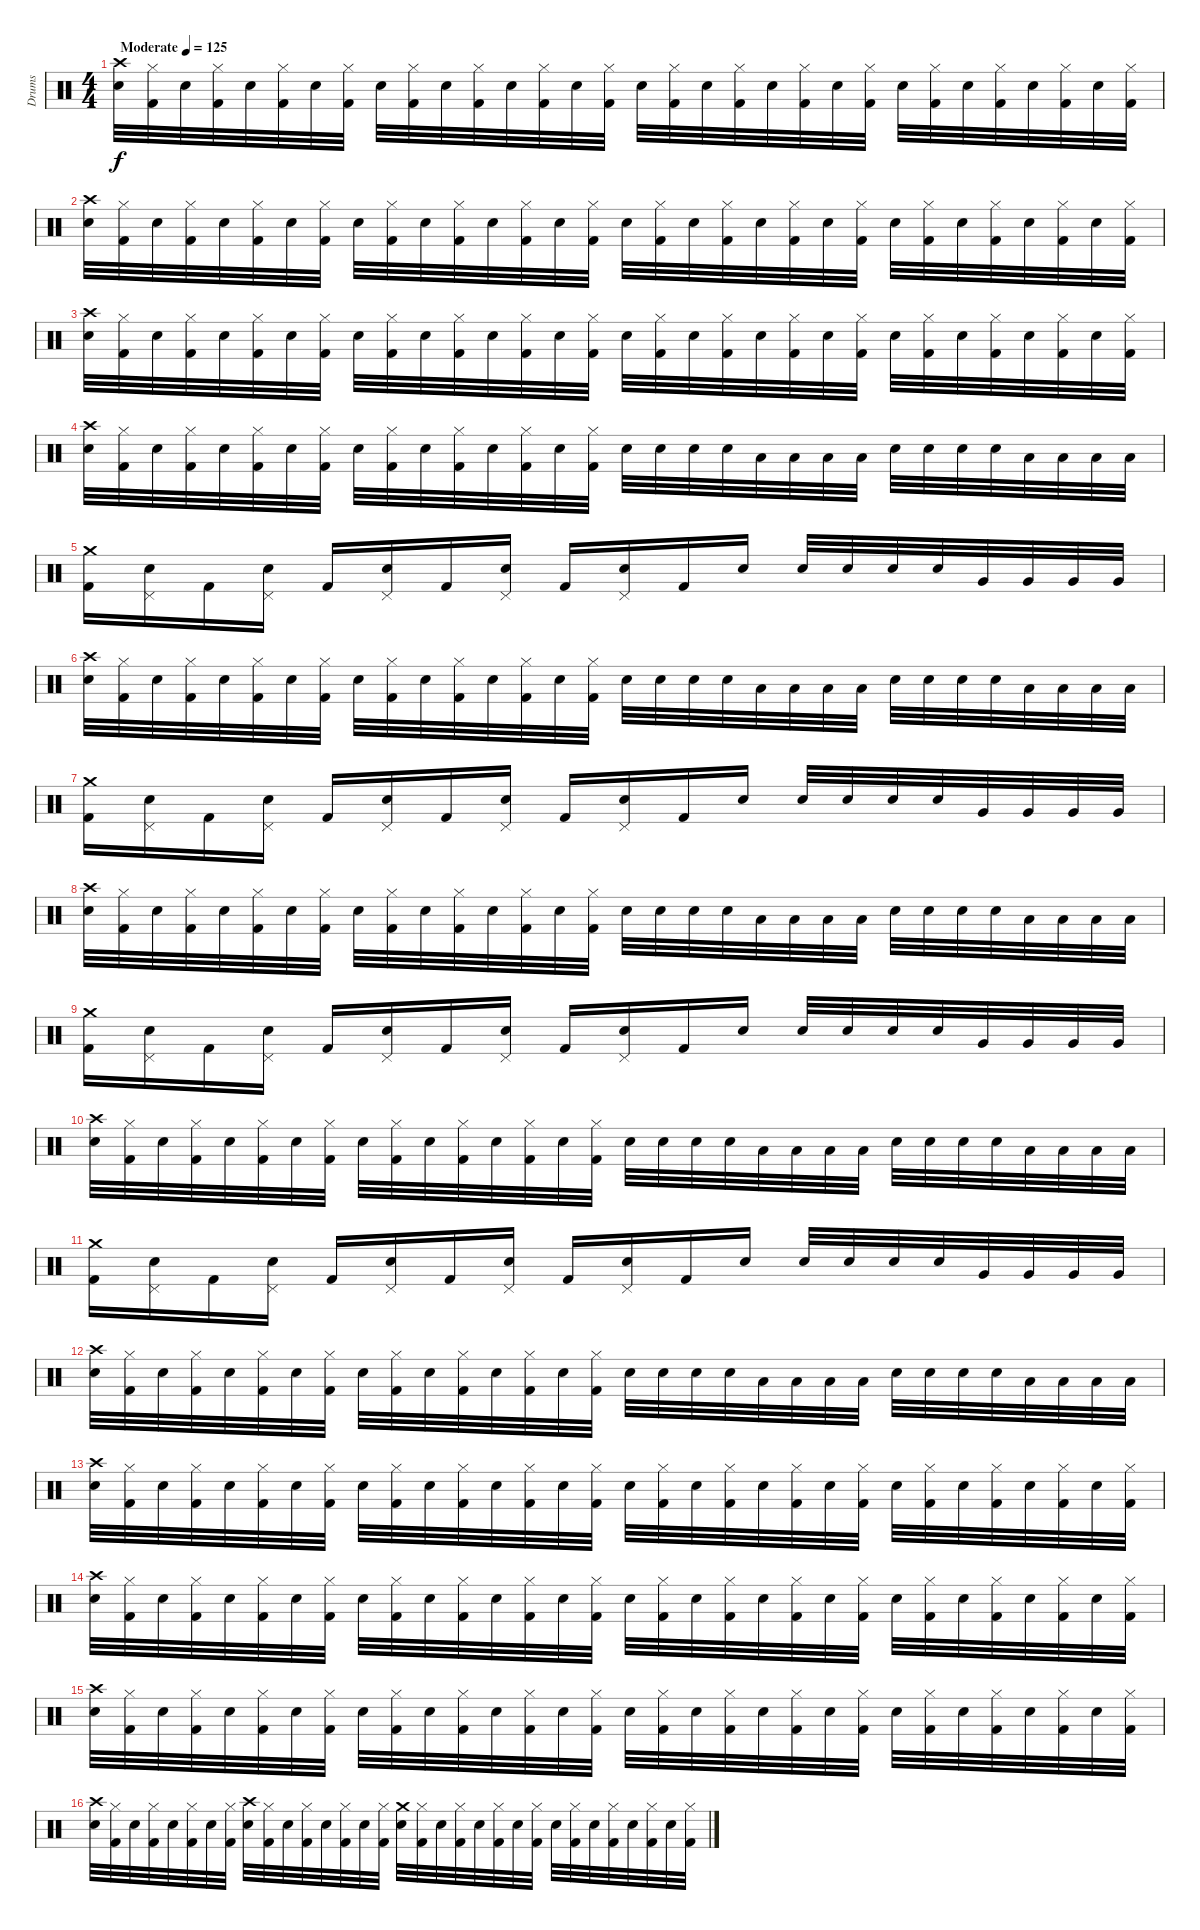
\track ("Drums" "Drums") {instrument percussion}
\staff {score}
\articulation defaults
\ts (4 4)
\tempo (125 "Moderate")
\clef neutral
\ks c
("Crash high (hit)" "Snare (hit) 2").32{dy f} ("Hi-Hat (closed)" "Kick (hit) 2").32 "Snare (hit) 2".32 ("Hi-Hat (closed)" "Kick (hit) 2").32 "Snare (hit) 2".32 ("Hi-Hat (closed)" "Kick (hit) 2").32 "Snare (hit) 2".32 ("Hi-Hat (closed)" "Kick (hit) 2").32 "Snare (hit) 2".32 ("Hi-Hat (closed)" "Kick (hit) 2").32 "Snare (hit) 2".32 ("Hi-Hat (closed)" "Kick (hit) 2").32 "Snare (hit) 2".32 ("Hi-Hat (closed)" "Kick (hit) 2").32 "Snare (hit) 2".32 ("Hi-Hat (closed)" "Kick (hit) 2").32 "Snare (hit) 2".32 ("Hi-Hat (closed)" "Kick (hit) 2").32 "Snare (hit) 2".32 ("Hi-Hat (closed)" "Kick (hit) 2").32 "Snare (hit) 2".32 ("Hi-Hat (closed)" "Kick (hit) 2").32 "Snare (hit) 2".32 ("Hi-Hat (closed)" "Kick (hit) 2").32 "Snare (hit) 2".32 ("Hi-Hat (closed)" "Kick (hit) 2").32 "Snare (hit) 2".32 ("Hi-Hat (closed)" "Kick (hit) 2").32 "Snare (hit) 2".32 ("Hi-Hat (closed)" "Kick (hit) 2").32 "Snare (hit) 2".32 ("Hi-Hat (closed)" "Kick (hit) 2").32 |
("Crash high (hit)" "Snare (hit) 2").32 ("Hi-Hat (closed)" "Kick (hit) 2").32 "Snare (hit) 2".32 ("Hi-Hat (closed)" "Kick (hit) 2").32 "Snare (hit) 2".32 ("Hi-Hat (closed)" "Kick (hit) 2").32 "Snare (hit) 2".32 ("Hi-Hat (closed)" "Kick (hit) 2").32 "Snare (hit) 2".32 ("Hi-Hat (closed)" "Kick (hit) 2").32 "Snare (hit) 2".32 ("Hi-Hat (closed)" "Kick (hit) 2").32 "Snare (hit) 2".32 ("Hi-Hat (closed)" "Kick (hit) 2").32 "Snare (hit) 2".32 ("Hi-Hat (closed)" "Kick (hit) 2").32 "Snare (hit) 2".32 ("Hi-Hat (closed)" "Kick (hit) 2").32 "Snare (hit) 2".32 ("Hi-Hat (closed)" "Kick (hit) 2").32 "Snare (hit) 2".32 ("Hi-Hat (closed)" "Kick (hit) 2").32 "Snare (hit) 2".32 ("Hi-Hat (closed)" "Kick (hit) 2").32 "Snare (hit) 2".32 ("Hi-Hat (closed)" "Kick (hit) 2").32 "Snare (hit) 2".32 ("Hi-Hat (closed)" "Kick (hit) 2").32 "Snare (hit) 2".32 ("Hi-Hat (closed)" "Kick (hit) 2").32 "Snare (hit) 2".32 ("Hi-Hat (closed)" "Kick (hit) 2").32 |
("Crash high (hit)" "Snare (hit) 2").32 ("Hi-Hat (closed)" "Kick (hit) 2").32 "Snare (hit) 2".32 ("Hi-Hat (closed)" "Kick (hit) 2").32 "Snare (hit) 2".32 ("Hi-Hat (closed)" "Kick (hit) 2").32 "Snare (hit) 2".32 ("Hi-Hat (closed)" "Kick (hit) 2").32 "Snare (hit) 2".32 ("Hi-Hat (closed)" "Kick (hit) 2").32 "Snare (hit) 2".32 ("Hi-Hat (closed)" "Kick (hit) 2").32 "Snare (hit) 2".32 ("Hi-Hat (closed)" "Kick (hit) 2").32 "Snare (hit) 2".32 ("Hi-Hat (closed)" "Kick (hit) 2").32 "Snare (hit) 2".32 ("Hi-Hat (closed)" "Kick (hit) 2").32 "Snare (hit) 2".32 ("Hi-Hat (closed)" "Kick (hit) 2").32 "Snare (hit) 2".32 ("Hi-Hat (closed)" "Kick (hit) 2").32 "Snare (hit) 2".32 ("Hi-Hat (closed)" "Kick (hit) 2").32 "Snare (hit) 2".32 ("Hi-Hat (closed)" "Kick (hit) 2").32 "Snare (hit) 2".32 ("Hi-Hat (closed)" "Kick (hit) 2").32 "Snare (hit) 2".32 ("Hi-Hat (closed)" "Kick (hit) 2").32 "Snare (hit) 2".32 ("Hi-Hat (closed)" "Kick (hit) 2").32 |
("Crash high (hit)" "Snare (hit) 2").32 ("Hi-Hat (closed)" "Kick (hit) 2").32 "Snare (hit) 2".32 ("Hi-Hat (closed)" "Kick (hit) 2").32 "Snare (hit) 2".32 ("Hi-Hat (closed)" "Kick (hit) 2").32 "Snare (hit) 2".32 ("Hi-Hat (closed)" "Kick (hit) 2").32 "Snare (hit) 2".32 ("Hi-Hat (closed)" "Kick (hit) 2").32 "Snare (hit) 2".32 ("Hi-Hat (closed)" "Kick (hit) 2").32 "Snare (hit) 2".32 ("Hi-Hat (closed)" "Kick (hit) 2").32 "Snare (hit) 2".32 ("Hi-Hat (closed)" "Kick (hit) 2").32 "Snare (hit) 2".32 "Snare (hit) 2".32 "Snare (hit) 2".32 "Snare (hit) 2".32 "Low Tom (hit)".32 "Low Tom (hit)".32 "Low Tom (hit)".32 "Low Tom (hit)".32 "Snare (hit) 2".32 "Snare (hit) 2".32 "Snare (hit) 2".32 "Snare (hit) 2".32 "Low Tom (hit)".32 "Low Tom (hit)".32 "Low Tom (hit)".32 "Low Tom (hit)".32 |
("Crash medium (hit)" "Kick (hit) 2").16 ("Pedal Hi-Hat (hit)" "Snare (hit) 2").16 "Kick (hit) 2".16 ("Pedal Hi-Hat (hit)" "Snare (hit) 2").16 "Kick (hit) 2".16 ("Pedal Hi-Hat (hit)" "Snare (hit) 2").16 "Kick (hit) 2".16 ("Pedal Hi-Hat (hit)" "Snare (hit) 2").16 "Kick (hit) 2".16 ("Pedal Hi-Hat (hit)" "Snare (hit) 2").16 "Kick (hit) 2".16 "Snare (hit) 2".16 "Snare (hit) 2".32 "Snare (hit) 2".32 "Snare (hit) 2".32 "Snare (hit) 2".32 "Very Low Tom (hit)".32 "Very Low Tom (hit)".32 "Very Low Tom (hit)".32 "Very Low Tom (hit)".32 |
("Crash high (hit)" "Snare (hit) 2").32 ("Hi-Hat (closed)" "Kick (hit) 2").32 "Snare (hit) 2".32 ("Hi-Hat (closed)" "Kick (hit) 2").32 "Snare (hit) 2".32 ("Hi-Hat (closed)" "Kick (hit) 2").32 "Snare (hit) 2".32 ("Hi-Hat (closed)" "Kick (hit) 2").32 "Snare (hit) 2".32 ("Hi-Hat (closed)" "Kick (hit) 2").32 "Snare (hit) 2".32 ("Hi-Hat (closed)" "Kick (hit) 2").32 "Snare (hit) 2".32 ("Hi-Hat (closed)" "Kick (hit) 2").32 "Snare (hit) 2".32 ("Hi-Hat (closed)" "Kick (hit) 2").32 "Snare (hit) 2".32 "Snare (hit) 2".32 "Snare (hit) 2".32 "Snare (hit) 2".32 "Low Tom (hit)".32 "Low Tom (hit)".32 "Low Tom (hit)".32 "Low Tom (hit)".32 "Snare (hit) 2".32 "Snare (hit) 2".32 "Snare (hit) 2".32 "Snare (hit) 2".32 "Low Tom (hit)".32 "Low Tom (hit)".32 "Low Tom (hit)".32 "Low Tom (hit)".32 |
("Crash medium (hit)" "Kick (hit) 2").16 ("Pedal Hi-Hat (hit)" "Snare (hit) 2").16 "Kick (hit) 2".16 ("Pedal Hi-Hat (hit)" "Snare (hit) 2").16 "Kick (hit) 2".16 ("Pedal Hi-Hat (hit)" "Snare (hit) 2").16 "Kick (hit) 2".16 ("Pedal Hi-Hat (hit)" "Snare (hit) 2").16 "Kick (hit) 2".16 ("Pedal Hi-Hat (hit)" "Snare (hit) 2").16 "Kick (hit) 2".16 "Snare (hit) 2".16 "Snare (hit) 2".32 "Snare (hit) 2".32 "Snare (hit) 2".32 "Snare (hit) 2".32 "Very Low Tom (hit)".32 "Very Low Tom (hit)".32 "Very Low Tom (hit)".32 "Very Low Tom (hit)".32 |
("Crash high (hit)" "Snare (hit) 2").32 ("Hi-Hat (closed)" "Kick (hit) 2").32 "Snare (hit) 2".32 ("Hi-Hat (closed)" "Kick (hit) 2").32 "Snare (hit) 2".32 ("Hi-Hat (closed)" "Kick (hit) 2").32 "Snare (hit) 2".32 ("Hi-Hat (closed)" "Kick (hit) 2").32 "Snare (hit) 2".32 ("Hi-Hat (closed)" "Kick (hit) 2").32 "Snare (hit) 2".32 ("Hi-Hat (closed)" "Kick (hit) 2").32 "Snare (hit) 2".32 ("Hi-Hat (closed)" "Kick (hit) 2").32 "Snare (hit) 2".32 ("Hi-Hat (closed)" "Kick (hit) 2").32 "Snare (hit) 2".32 "Snare (hit) 2".32 "Snare (hit) 2".32 "Snare (hit) 2".32 "Low Tom (hit)".32 "Low Tom (hit)".32 "Low Tom (hit)".32 "Low Tom (hit)".32 "Snare (hit) 2".32 "Snare (hit) 2".32 "Snare (hit) 2".32 "Snare (hit) 2".32 "Low Tom (hit)".32 "Low Tom (hit)".32 "Low Tom (hit)".32 "Low Tom (hit)".32 |
("Crash medium (hit)" "Kick (hit) 2").16 ("Pedal Hi-Hat (hit)" "Snare (hit) 2").16 "Kick (hit) 2".16 ("Pedal Hi-Hat (hit)" "Snare (hit) 2").16 "Kick (hit) 2".16 ("Pedal Hi-Hat (hit)" "Snare (hit) 2").16 "Kick (hit) 2".16 ("Pedal Hi-Hat (hit)" "Snare (hit) 2").16 "Kick (hit) 2".16 ("Pedal Hi-Hat (hit)" "Snare (hit) 2").16 "Kick (hit) 2".16 "Snare (hit) 2".16 "Snare (hit) 2".32 "Snare (hit) 2".32 "Snare (hit) 2".32 "Snare (hit) 2".32 "Very Low Tom (hit)".32 "Very Low Tom (hit)".32 "Very Low Tom (hit)".32 "Very Low Tom (hit)".32 |
("Crash high (hit)" "Snare (hit) 2").32 ("Hi-Hat (closed)" "Kick (hit) 2").32 "Snare (hit) 2".32 ("Hi-Hat (closed)" "Kick (hit) 2").32 "Snare (hit) 2".32 ("Hi-Hat (closed)" "Kick (hit) 2").32 "Snare (hit) 2".32 ("Hi-Hat (closed)" "Kick (hit) 2").32 "Snare (hit) 2".32 ("Hi-Hat (closed)" "Kick (hit) 2").32 "Snare (hit) 2".32 ("Hi-Hat (closed)" "Kick (hit) 2").32 "Snare (hit) 2".32 ("Hi-Hat (closed)" "Kick (hit) 2").32 "Snare (hit) 2".32 ("Hi-Hat (closed)" "Kick (hit) 2").32 "Snare (hit) 2".32 "Snare (hit) 2".32 "Snare (hit) 2".32 "Snare (hit) 2".32 "Low Tom (hit)".32 "Low Tom (hit)".32 "Low Tom (hit)".32 "Low Tom (hit)".32 "Snare (hit) 2".32 "Snare (hit) 2".32 "Snare (hit) 2".32 "Snare (hit) 2".32 "Low Tom (hit)".32 "Low Tom (hit)".32 "Low Tom (hit)".32 "Low Tom (hit)".32 |
("Crash medium (hit)" "Kick (hit) 2").16 ("Pedal Hi-Hat (hit)" "Snare (hit) 2").16 "Kick (hit) 2".16 ("Pedal Hi-Hat (hit)" "Snare (hit) 2").16 "Kick (hit) 2".16 ("Pedal Hi-Hat (hit)" "Snare (hit) 2").16 "Kick (hit) 2".16 ("Pedal Hi-Hat (hit)" "Snare (hit) 2").16 "Kick (hit) 2".16 ("Pedal Hi-Hat (hit)" "Snare (hit) 2").16 "Kick (hit) 2".16 "Snare (hit) 2".16 "Snare (hit) 2".32 "Snare (hit) 2".32 "Snare (hit) 2".32 "Snare (hit) 2".32 "Very Low Tom (hit)".32 "Very Low Tom (hit)".32 "Very Low Tom (hit)".32 "Very Low Tom (hit)".32 |
("Crash high (hit)" "Snare (hit) 2").32 ("Hi-Hat (closed)" "Kick (hit) 2").32 "Snare (hit) 2".32 ("Hi-Hat (closed)" "Kick (hit) 2").32 "Snare (hit) 2".32 ("Hi-Hat (closed)" "Kick (hit) 2").32 "Snare (hit) 2".32 ("Hi-Hat (closed)" "Kick (hit) 2").32 "Snare (hit) 2".32 ("Hi-Hat (closed)" "Kick (hit) 2").32 "Snare (hit) 2".32 ("Hi-Hat (closed)" "Kick (hit) 2").32 "Snare (hit) 2".32 ("Hi-Hat (closed)" "Kick (hit) 2").32 "Snare (hit) 2".32 ("Hi-Hat (closed)" "Kick (hit) 2").32 "Snare (hit) 2".32 "Snare (hit) 2".32 "Snare (hit) 2".32 "Snare (hit) 2".32 "Low Tom (hit)".32 "Low Tom (hit)".32 "Low Tom (hit)".32 "Low Tom (hit)".32 "Snare (hit) 2".32 "Snare (hit) 2".32 "Snare (hit) 2".32 "Snare (hit) 2".32 "Low Tom (hit)".32 "Low Tom (hit)".32 "Low Tom (hit)".32 "Low Tom (hit)".32 |
("Crash high (hit)" "Snare (hit) 2").32 ("Hi-Hat (closed)" "Kick (hit) 2").32 "Snare (hit) 2".32 ("Hi-Hat (closed)" "Kick (hit) 2").32 "Snare (hit) 2".32 ("Hi-Hat (closed)" "Kick (hit) 2").32 "Snare (hit) 2".32 ("Hi-Hat (closed)" "Kick (hit) 2").32 "Snare (hit) 2".32 ("Hi-Hat (closed)" "Kick (hit) 2").32 "Snare (hit) 2".32 ("Hi-Hat (closed)" "Kick (hit) 2").32 "Snare (hit) 2".32 ("Hi-Hat (closed)" "Kick (hit) 2").32 "Snare (hit) 2".32 ("Hi-Hat (closed)" "Kick (hit) 2").32 "Snare (hit) 2".32 ("Hi-Hat (closed)" "Kick (hit) 2").32 "Snare (hit) 2".32 ("Hi-Hat (closed)" "Kick (hit) 2").32 "Snare (hit) 2".32 ("Hi-Hat (closed)" "Kick (hit) 2").32 "Snare (hit) 2".32 ("Hi-Hat (closed)" "Kick (hit) 2").32 "Snare (hit) 2".32 ("Hi-Hat (closed)" "Kick (hit) 2").32 "Snare (hit) 2".32 ("Hi-Hat (closed)" "Kick (hit) 2").32 "Snare (hit) 2".32 ("Hi-Hat (closed)" "Kick (hit) 2").32 "Snare (hit) 2".32 ("Hi-Hat (closed)" "Kick (hit) 2").32 |
("Crash high (hit)" "Snare (hit) 2").32 ("Hi-Hat (closed)" "Kick (hit) 2").32 "Snare (hit) 2".32 ("Hi-Hat (closed)" "Kick (hit) 2").32 "Snare (hit) 2".32 ("Hi-Hat (closed)" "Kick (hit) 2").32 "Snare (hit) 2".32 ("Hi-Hat (closed)" "Kick (hit) 2").32 "Snare (hit) 2".32 ("Hi-Hat (closed)" "Kick (hit) 2").32 "Snare (hit) 2".32 ("Hi-Hat (closed)" "Kick (hit) 2").32 "Snare (hit) 2".32 ("Hi-Hat (closed)" "Kick (hit) 2").32 "Snare (hit) 2".32 ("Hi-Hat (closed)" "Kick (hit) 2").32 "Snare (hit) 2".32 ("Hi-Hat (closed)" "Kick (hit) 2").32 "Snare (hit) 2".32 ("Hi-Hat (closed)" "Kick (hit) 2").32 "Snare (hit) 2".32 ("Hi-Hat (closed)" "Kick (hit) 2").32 "Snare (hit) 2".32 ("Hi-Hat (closed)" "Kick (hit) 2").32 "Snare (hit) 2".32 ("Hi-Hat (closed)" "Kick (hit) 2").32 "Snare (hit) 2".32 ("Hi-Hat (closed)" "Kick (hit) 2").32 "Snare (hit) 2".32 ("Hi-Hat (closed)" "Kick (hit) 2").32 "Snare (hit) 2".32 ("Hi-Hat (closed)" "Kick (hit) 2").32 |
("Crash high (hit)" "Snare (hit) 2").32 ("Hi-Hat (closed)" "Kick (hit) 2").32 "Snare (hit) 2".32 ("Hi-Hat (closed)" "Kick (hit) 2").32 "Snare (hit) 2".32 ("Hi-Hat (closed)" "Kick (hit) 2").32 "Snare (hit) 2".32 ("Hi-Hat (closed)" "Kick (hit) 2").32 "Snare (hit) 2".32 ("Hi-Hat (closed)" "Kick (hit) 2").32 "Snare (hit) 2".32 ("Hi-Hat (closed)" "Kick (hit) 2").32 "Snare (hit) 2".32 ("Hi-Hat (closed)" "Kick (hit) 2").32 "Snare (hit) 2".32 ("Hi-Hat (closed)" "Kick (hit) 2").32 "Snare (hit) 2".32 ("Hi-Hat (closed)" "Kick (hit) 2").32 "Snare (hit) 2".32 ("Hi-Hat (closed)" "Kick (hit) 2").32 "Snare (hit) 2".32 ("Hi-Hat (closed)" "Kick (hit) 2").32 "Snare (hit) 2".32 ("Hi-Hat (closed)" "Kick (hit) 2").32 "Snare (hit) 2".32 ("Hi-Hat (closed)" "Kick (hit) 2").32 "Snare (hit) 2".32 ("Hi-Hat (closed)" "Kick (hit) 2").32 "Snare (hit) 2".32 ("Hi-Hat (closed)" "Kick (hit) 2").32 "Snare (hit) 2".32 ("Hi-Hat (closed)" "Kick (hit) 2").32 |
("Crash high (hit)" "Snare (hit) 2").32 ("Hi-Hat (closed)" "Kick (hit) 2").32 "Snare (hit) 2".32 ("Hi-Hat (closed)" "Kick (hit) 2").32 "Snare (hit) 2".32 ("Hi-Hat (closed)" "Kick (hit) 2").32 "Snare (hit) 2".32 ("Hi-Hat (closed)" "Kick (hit) 2").32 ("Crash high (hit)" "Snare (hit) 2").32 ("Hi-Hat (closed)" "Kick (hit) 2").32 "Snare (hit) 2".32 ("Hi-Hat (closed)" "Kick (hit) 2").32 "Snare (hit) 2".32 ("Hi-Hat (closed)" "Kick (hit) 2").32 "Snare (hit) 2".32 ("Hi-Hat (closed)" "Kick (hit) 2").32 ("Crash medium (hit)" "Snare (hit) 2").32 ("Hi-Hat (closed)" "Kick (hit) 2").32 "Snare (hit) 2".32 ("Hi-Hat (closed)" "Kick (hit) 2").32 "Snare (hit) 2".32 ("Hi-Hat (closed)" "Kick (hit) 2").32 "Snare (hit) 2".32 ("Hi-Hat (closed)" "Kick (hit) 2").32 "Snare (hit) 2".32 ("Hi-Hat (closed)" "Kick (hit) 2").32 "Snare (hit) 2".32 ("Hi-Hat (closed)" "Kick (hit) 2").32 "Snare (hit) 2".32 ("Hi-Hat (closed)" "Kick (hit) 2").32 "Snare (hit) 2".32 ("Hi-Hat (closed)" "Kick (hit) 2").32
